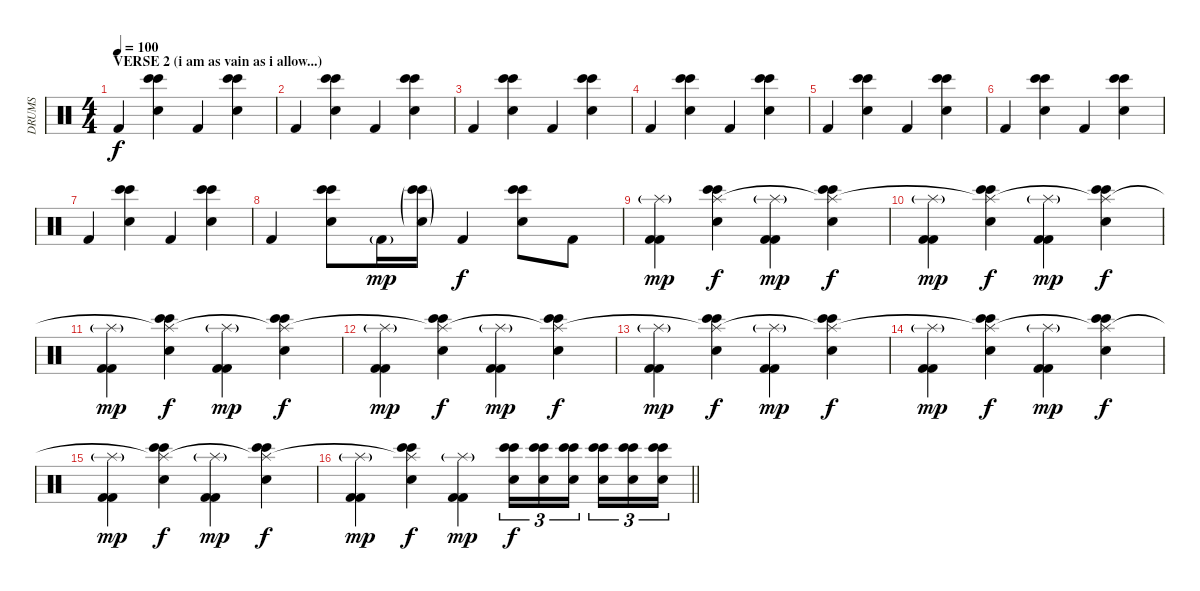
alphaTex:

\track ("DRUMS" "DRUMS") {instrument percussion}
\staff {score}
\articulation defaults
\ts (4 4)
\section ("" "VERSE 2 (i am as vain as i allow...)")
\tempo 100
\clef neutral
\ks c "Kick (hit) 2".4{dy f}
("Bongo High (hit)" "Bongo High (hit)" "Snare (hit) 2").4 "Kick (hit) 2".4 ("Bongo High (hit)" "Bongo High (hit)" "Snare (hit) 2").4 |
"Kick (hit) 2".4 ("Bongo High (hit)" "Bongo High (hit)" "Snare (hit) 2").4 "Kick (hit) 2".4 ("Bongo High (hit)" "Bongo High (hit)" "Snare (hit) 2").4 |
"Kick (hit) 2".4 ("Bongo High (hit)" "Bongo High (hit)" "Snare (hit) 2").4 "Kick (hit) 2".4 ("Bongo High (hit)" "Bongo High (hit)" "Snare (hit) 2").4 |
"Kick (hit) 2".4 ("Bongo High (hit)" "Bongo High (hit)" "Snare (hit) 2").4 "Kick (hit) 2".4 ("Bongo High (hit)" "Bongo High (hit)" "Snare (hit) 2").4 |
"Kick (hit) 2".4 ("Bongo High (hit)" "Bongo High (hit)" "Snare (hit) 2").4 "Kick (hit) 2".4 ("Bongo High (hit)" "Bongo High (hit)" "Snare (hit) 2").4 |
"Kick (hit) 2".4 ("Bongo High (hit)" "Bongo High (hit)" "Snare (hit) 2").4 "Kick (hit) 2".4 ("Bongo High (hit)" "Bongo High (hit)" "Snare (hit) 2").4 |
"Kick (hit) 2".4 ("Bongo High (hit)" "Bongo High (hit)" "Snare (hit) 2").4 "Kick (hit) 2".4 ("Bongo High (hit)" "Bongo High (hit)" "Snare (hit) 2").4 |
"Kick (hit) 2".4 ("Bongo High (hit)" "Bongo High (hit)" "Snare (hit) 2").8 "Kick (hit) 2"{g}.16{dy mp} ("Bongo High (hit)"{g} "Bongo High (hit)"{g} "Snare (hit) 2"{g}).16 "Kick (hit) 2".4{dy f} ("Bongo High (hit)" "Bongo High (hit)" "Snare (hit) 2").8 "Kick (hit) 2".8 |
("Kick (hit) 2" "Kick (hit) 2" "Splash (hit)"{g}).4{dy mp} ("Bongo High (hit)" "Bongo High (hit)" "Snare (hit) 2" "Splash (hit)").4{dy f} ("Kick (hit) 2" "Kick (hit) 2" "Splash (hit)"{g}).4{dy mp} ("Bongo High (hit)" "Bongo High (hit)" "Snare (hit) 2" "Splash (hit)"{t}).4{dy f} |
("Kick (hit) 2" "Kick (hit) 2" "Splash (hit)"{g}).4{dy mp} ("Bongo High (hit)" "Bongo High (hit)" "Snare (hit) 2" "Splash (hit)"{t}).4{dy f} ("Kick (hit) 2" "Kick (hit) 2" "Splash (hit)"{g}).4{dy mp} ("Bongo High (hit)" "Bongo High (hit)" "Snare (hit) 2" "Splash (hit)"{t}).4{dy f} |
("Kick (hit) 2" "Kick (hit) 2" "Splash (hit)"{g}).4{dy mp} ("Bongo High (hit)" "Bongo High (hit)" "Snare (hit) 2" "Splash (hit)"{t}).4{dy f} ("Kick (hit) 2" "Kick (hit) 2" "Splash (hit)"{g}).4{dy mp} ("Bongo High (hit)" "Bongo High (hit)" "Snare (hit) 2" "Splash (hit)"{t}).4{dy f} |
("Kick (hit) 2" "Kick (hit) 2" "Splash (hit)"{g}).4{dy mp} ("Bongo High (hit)" "Bongo High (hit)" "Snare (hit) 2" "Splash (hit)"{t}).4{dy f} ("Kick (hit) 2" "Kick (hit) 2" "Splash (hit)"{g}).4{dy mp} ("Bongo High (hit)" "Bongo High (hit)" "Snare (hit) 2" "Splash (hit)"{t}).4{dy f} |
("Kick (hit) 2" "Kick (hit) 2" "Splash (hit)"{g}).4{dy mp} ("Bongo High (hit)" "Bongo High (hit)" "Snare (hit) 2" "Splash (hit)"{t}).4{dy f} ("Kick (hit) 2" "Kick (hit) 2" "Splash (hit)"{g}).4{dy mp} ("Bongo High (hit)" "Bongo High (hit)" "Snare (hit) 2" "Splash (hit)"{t}).4{dy f} |
("Kick (hit) 2" "Kick (hit) 2" "Splash (hit)"{g}).4{dy mp} ("Bongo High (hit)" "Bongo High (hit)" "Snare (hit) 2" "Splash (hit)"{t}).4{dy f} ("Kick (hit) 2" "Kick (hit) 2" "Splash (hit)"{g}).4{dy mp} ("Bongo High (hit)" "Bongo High (hit)" "Snare (hit) 2" "Splash (hit)"{t}).4{dy f} |
("Kick (hit) 2" "Kick (hit) 2" "Splash (hit)"{g}).4{dy mp} ("Bongo High (hit)" "Bongo High (hit)" "Snare (hit) 2" "Splash (hit)"{t}).4{dy f} ("Kick (hit) 2" "Kick (hit) 2" "Splash (hit)"{g}).4{dy mp} ("Bongo High (hit)" "Bongo High (hit)" "Snare (hit) 2" "Splash (hit)"{t}).4{dy f} |
\barLineRight lightlight
("Kick (hit) 2" "Kick (hit) 2" "Splash (hit)"{g}).4{dy mp} ("Bongo High (hit)" "Bongo High (hit)" "Snare (hit) 2" "Splash (hit)"{t}).4{dy f} ("Kick (hit) 2" "Kick (hit) 2" "Splash (hit)"{g}).4{dy mp} ("Bongo High (hit)" "Bongo High (hit)" "Snare (hit) 2").16{tu (3 2) dy f} ("Bongo High (hit)" "Bongo High (hit)" "Snare (hit) 2").16{tu (3 2)} ("Bongo High (hit)" "Bongo High (hit)" "Snare (hit) 2").16{tu (3 2) beam splitsecondary} ("Bongo High (hit)" "Bongo High (hit)" "Snare (hit) 2").16{tu (3 2)} ("Bongo High (hit)" "Bongo High (hit)" "Snare (hit) 2").16{tu (3 2)} ("Bongo High (hit)" "Bongo High (hit)" "Snare (hit) 2").16{tu (3 2)}
